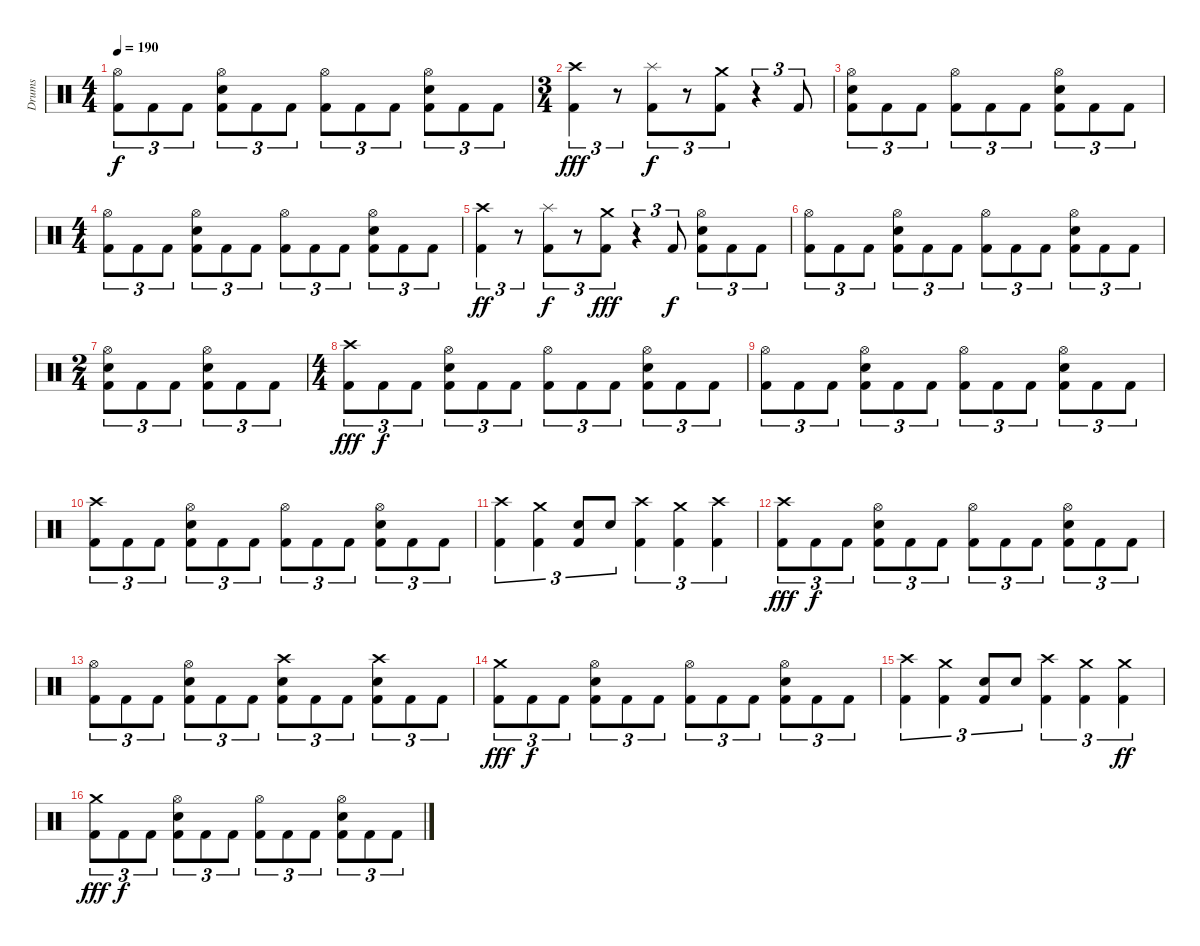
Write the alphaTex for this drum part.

\track ("Drums" "Drums") {instrument percussion}
\staff {score}
\articulation defaults
\ts (4 4)
\tempo 190
\clef neutral
\ks c
("Hi-Hat (open)" "Kick (hit) 2").8{tu (3 2) dy f} "Kick (hit) 2".8{tu (3 2)} "Kick (hit) 2".8{tu (3 2)} ("Hi-Hat (open)" "Snare (hit) 2" "Kick (hit) 2").8{tu (3 2)} "Kick (hit) 2".8{tu (3 2)} "Kick (hit) 2".8{tu (3 2)} ("Hi-Hat (open)" "Kick (hit) 2").8{tu (3 2)} "Kick (hit) 2".8{tu (3 2)} "Kick (hit) 2".8{tu (3 2)} ("Hi-Hat (open)" "Snare (hit) 2" "Kick (hit) 2").8{tu (3 2)} "Kick (hit) 2".8{tu (3 2)} "Kick (hit) 2".8{tu (3 2)} |
\ts (3 4)
("Crash high (hit)" "Kick (hit) 2").4{tu (3 2) dy fff} r.8{tu (3 2)} ("Splash (hit)" "Kick (hit) 2").8{tu (3 2) dy f} r.8{tu (3 2)} ("Crash medium (hit)" "Kick (hit) 2").8{tu (3 2)} r.4{tu (3 2)} "Kick (hit) 2".8{tu (3 2)} |
("Hi-Hat (open)" "Snare (hit) 2" "Kick (hit) 2").8{tu (3 2)} "Kick (hit) 2".8{tu (3 2)} "Kick (hit) 2".8{tu (3 2)} ("Hi-Hat (open)" "Kick (hit) 2").8{tu (3 2)} "Kick (hit) 2".8{tu (3 2)} "Kick (hit) 2".8{tu (3 2)} ("Hi-Hat (open)" "Snare (hit) 2" "Kick (hit) 2").8{tu (3 2)} "Kick (hit) 2".8{tu (3 2)} "Kick (hit) 2".8{tu (3 2)} |
\ts (4 4)
("Hi-Hat (open)" "Kick (hit) 2").8{tu (3 2)} "Kick (hit) 2".8{tu (3 2)} "Kick (hit) 2".8{tu (3 2)} ("Hi-Hat (open)" "Snare (hit) 2" "Kick (hit) 2").8{tu (3 2)} "Kick (hit) 2".8{tu (3 2)} "Kick (hit) 2".8{tu (3 2)} ("Hi-Hat (open)" "Kick (hit) 2").8{tu (3 2)} "Kick (hit) 2".8{tu (3 2)} "Kick (hit) 2".8{tu (3 2)} ("Hi-Hat (open)" "Snare (hit) 2" "Kick (hit) 2").8{tu (3 2)} "Kick (hit) 2".8{tu (3 2)} "Kick (hit) 2".8{tu (3 2)} |
("Crash high (hit)" "Kick (hit) 2").4{tu (3 2) dy ff} r.8{tu (3 2)} ("Splash (hit)" "Kick (hit) 2").8{tu (3 2) dy f} r.8{tu (3 2)} ("Crash medium (hit)" "Kick (hit) 2").8{tu (3 2) dy fff} r.4{tu (3 2)} "Kick (hit) 2".8{tu (3 2) dy f} ("Hi-Hat (open)" "Snare (hit) 2" "Kick (hit) 2").8{tu (3 2)} "Kick (hit) 2".8{tu (3 2)} "Kick (hit) 2".8{tu (3 2)} |
("Hi-Hat (open)" "Kick (hit) 2").8{tu (3 2)} "Kick (hit) 2".8{tu (3 2)} "Kick (hit) 2".8{tu (3 2)} ("Hi-Hat (open)" "Snare (hit) 2" "Kick (hit) 2").8{tu (3 2)} "Kick (hit) 2".8{tu (3 2)} "Kick (hit) 2".8{tu (3 2)} ("Hi-Hat (open)" "Kick (hit) 2").8{tu (3 2)} "Kick (hit) 2".8{tu (3 2)} "Kick (hit) 2".8{tu (3 2)} ("Hi-Hat (open)" "Snare (hit) 2" "Kick (hit) 2").8{tu (3 2)} "Kick (hit) 2".8{tu (3 2)} "Kick (hit) 2".8{tu (3 2)} |
\ts (2 4)
("Hi-Hat (open)" "Snare (hit) 2" "Kick (hit) 2").8{tu (3 2)} "Kick (hit) 2".8{tu (3 2)} "Kick (hit) 2".8{tu (3 2)} ("Hi-Hat (open)" "Snare (hit) 2" "Kick (hit) 2").8{tu (3 2)} "Kick (hit) 2".8{tu (3 2)} "Kick (hit) 2".8{tu (3 2)} |
\ts (4 4)
("Crash high (hit)" "Kick (hit) 2").8{tu (3 2) dy fff} "Kick (hit) 2".8{tu (3 2) dy f} "Kick (hit) 2".8{tu (3 2)} ("Hi-Hat (open)" "Snare (hit) 2" "Kick (hit) 2").8{tu (3 2)} "Kick (hit) 2".8{tu (3 2)} "Kick (hit) 2".8{tu (3 2)} ("Hi-Hat (open)" "Kick (hit) 2").8{tu (3 2)} "Kick (hit) 2".8{tu (3 2)} "Kick (hit) 2".8{tu (3 2)} ("Hi-Hat (open)" "Snare (hit) 2" "Kick (hit) 2").8{tu (3 2)} "Kick (hit) 2".8{tu (3 2)} "Kick (hit) 2".8{tu (3 2)} |
("Hi-Hat (open)" "Kick (hit) 2").8{tu (3 2)} "Kick (hit) 2".8{tu (3 2)} "Kick (hit) 2".8{tu (3 2)} ("Hi-Hat (open)" "Snare (hit) 2" "Kick (hit) 2").8{tu (3 2)} "Kick (hit) 2".8{tu (3 2)} "Kick (hit) 2".8{tu (3 2)} ("Hi-Hat (open)" "Kick (hit) 2").8{tu (3 2)} "Kick (hit) 2".8{tu (3 2)} "Kick (hit) 2".8{tu (3 2)} ("Hi-Hat (open)" "Snare (hit) 2" "Kick (hit) 2").8{tu (3 2)} "Kick (hit) 2".8{tu (3 2)} "Kick (hit) 2".8{tu (3 2)} |
("Crash high (hit)" "Kick (hit) 2").8{tu (3 2)} "Kick (hit) 2".8{tu (3 2)} "Kick (hit) 2".8{tu (3 2)} ("Hi-Hat (open)" "Snare (hit) 2" "Kick (hit) 2").8{tu (3 2)} "Kick (hit) 2".8{tu (3 2)} "Kick (hit) 2".8{tu (3 2)} ("Hi-Hat (open)" "Kick (hit) 2").8{tu (3 2)} "Kick (hit) 2".8{tu (3 2)} "Kick (hit) 2".8{tu (3 2)} ("Hi-Hat (open)" "Snare (hit) 2" "Kick (hit) 2").8{tu (3 2)} "Kick (hit) 2".8{tu (3 2)} "Kick (hit) 2".8{tu (3 2)} |
("Crash high (hit)" "Kick (hit) 2").4{tu (3 2)} ("Crash medium (hit)" "Kick (hit) 2").4{tu (3 2)} ("Snare (hit) 2" "Kick (hit) 2").8{tu (3 2)} "Snare (hit) 2".8{tu (3 2)} ("Crash high (hit)" "Kick (hit) 2").4{tu (3 2)} ("Crash medium (hit)" "Kick (hit) 2").4{tu (3 2)} ("Crash high (hit)" "Kick (hit) 2").4{tu (3 2)} |
("Crash high (hit)" "Kick (hit) 2").8{tu (3 2) dy fff} "Kick (hit) 2".8{tu (3 2) dy f} "Kick (hit) 2".8{tu (3 2)} ("Hi-Hat (open)" "Snare (hit) 2" "Kick (hit) 2").8{tu (3 2)} "Kick (hit) 2".8{tu (3 2)} "Kick (hit) 2".8{tu (3 2)} ("Hi-Hat (open)" "Kick (hit) 2").8{tu (3 2)} "Kick (hit) 2".8{tu (3 2)} "Kick (hit) 2".8{tu (3 2)} ("Hi-Hat (open)" "Snare (hit) 2" "Kick (hit) 2").8{tu (3 2)} "Kick (hit) 2".8{tu (3 2)} "Kick (hit) 2".8{tu (3 2)} |
("Hi-Hat (open)" "Kick (hit) 2").8{tu (3 2)} "Kick (hit) 2".8{tu (3 2)} "Kick (hit) 2".8{tu (3 2)} ("Hi-Hat (open)" "Snare (hit) 2" "Kick (hit) 2").8{tu (3 2)} "Kick (hit) 2".8{tu (3 2)} "Kick (hit) 2".8{tu (3 2)} ("Crash high (hit)" "Snare (hit) 2" "Kick (hit) 2").8{tu (3 2)} "Kick (hit) 2".8{tu (3 2)} "Kick (hit) 2".8{tu (3 2)} ("Crash high (hit)" "Snare (hit) 2" "Kick (hit) 2").8{tu (3 2)} "Kick (hit) 2".8{tu (3 2)} "Kick (hit) 2".8{tu (3 2)} |
("Crash medium (hit)" "Kick (hit) 2").8{tu (3 2) dy fff} "Kick (hit) 2".8{tu (3 2) dy f} "Kick (hit) 2".8{tu (3 2)} ("Hi-Hat (open)" "Snare (hit) 2" "Kick (hit) 2").8{tu (3 2)} "Kick (hit) 2".8{tu (3 2)} "Kick (hit) 2".8{tu (3 2)} ("Hi-Hat (open)" "Kick (hit) 2").8{tu (3 2)} "Kick (hit) 2".8{tu (3 2)} "Kick (hit) 2".8{tu (3 2)} ("Hi-Hat (open)" "Snare (hit) 2" "Kick (hit) 2").8{tu (3 2)} "Kick (hit) 2".8{tu (3 2)} "Kick (hit) 2".8{tu (3 2)} |
("Crash high (hit)" "Kick (hit) 2").4{tu (3 2)} ("Crash medium (hit)" "Kick (hit) 2").4{tu (3 2)} ("Snare (hit) 2" "Kick (hit) 2").8{tu (3 2)} "Snare (hit) 2".8{tu (3 2)} ("Crash high (hit)" "Kick (hit) 2").4{tu (3 2)} ("Crash medium (hit)" "Kick (hit) 2").4{tu (3 2)} ("Crash medium (hit)" "Kick (hit) 2").4{tu (3 2) dy ff} |
("Crash medium (hit)" "Kick (hit) 2").8{tu (3 2) dy fff} "Kick (hit) 2".8{tu (3 2) dy f} "Kick (hit) 2".8{tu (3 2)} ("Hi-Hat (open)" "Snare (hit) 2" "Kick (hit) 2").8{tu (3 2)} "Kick (hit) 2".8{tu (3 2)} "Kick (hit) 2".8{tu (3 2)} ("Hi-Hat (open)" "Kick (hit) 2").8{tu (3 2)} "Kick (hit) 2".8{tu (3 2)} "Kick (hit) 2".8{tu (3 2)} ("Hi-Hat (open)" "Snare (hit) 2" "Kick (hit) 2").8{tu (3 2)} "Kick (hit) 2".8{tu (3 2)} "Kick (hit) 2".8{tu (3 2)}
